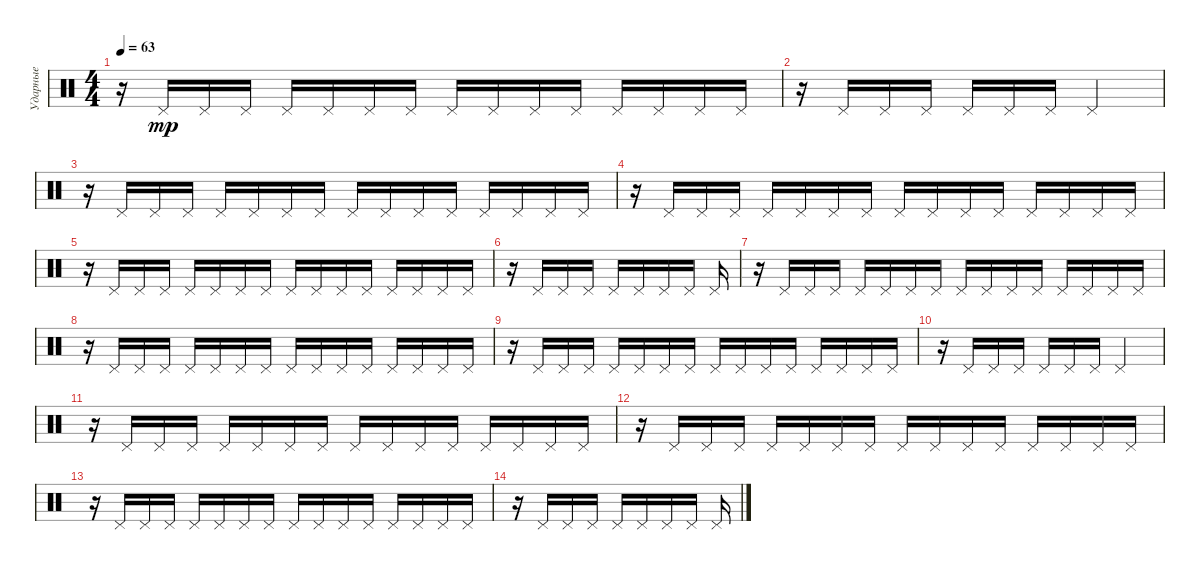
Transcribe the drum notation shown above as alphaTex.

\track ("Ударные" "Ударные") {instrument percussion}
\staff {score}
\articulation defaults
\ts (4 4)
\tempo 63
\clef neutral
\ks c
r.16{dy mp} "Pedal Hi-Hat (hit)".16 "Pedal Hi-Hat (hit)".16 "Pedal Hi-Hat (hit)".16 "Pedal Hi-Hat (hit)".16 "Pedal Hi-Hat (hit)".16 "Pedal Hi-Hat (hit)".16 "Pedal Hi-Hat (hit)".16 "Pedal Hi-Hat (hit)".16 "Pedal Hi-Hat (hit)".16 "Pedal Hi-Hat (hit)".16 "Pedal Hi-Hat (hit)".16 "Pedal Hi-Hat (hit)".16 "Pedal Hi-Hat (hit)".16 "Pedal Hi-Hat (hit)".16 "Pedal Hi-Hat (hit)".16 |
r.16 "Pedal Hi-Hat (hit)".16 "Pedal Hi-Hat (hit)".16 "Pedal Hi-Hat (hit)".16 "Pedal Hi-Hat (hit)".16 "Pedal Hi-Hat (hit)".16 "Pedal Hi-Hat (hit)".16 "Pedal Hi-Hat (hit)".2 |
r.16 "Pedal Hi-Hat (hit)".16 "Pedal Hi-Hat (hit)".16 "Pedal Hi-Hat (hit)".16 "Pedal Hi-Hat (hit)".16 "Pedal Hi-Hat (hit)".16 "Pedal Hi-Hat (hit)".16 "Pedal Hi-Hat (hit)".16 "Pedal Hi-Hat (hit)".16 "Pedal Hi-Hat (hit)".16 "Pedal Hi-Hat (hit)".16 "Pedal Hi-Hat (hit)".16 "Pedal Hi-Hat (hit)".16 "Pedal Hi-Hat (hit)".16 "Pedal Hi-Hat (hit)".16 "Pedal Hi-Hat (hit)".16 |
r.16 "Pedal Hi-Hat (hit)".16 "Pedal Hi-Hat (hit)".16 "Pedal Hi-Hat (hit)".16 "Pedal Hi-Hat (hit)".16 "Pedal Hi-Hat (hit)".16 "Pedal Hi-Hat (hit)".16 "Pedal Hi-Hat (hit)".16 "Pedal Hi-Hat (hit)".16 "Pedal Hi-Hat (hit)".16 "Pedal Hi-Hat (hit)".16 "Pedal Hi-Hat (hit)".16 "Pedal Hi-Hat (hit)".16 "Pedal Hi-Hat (hit)".16 "Pedal Hi-Hat (hit)".16 "Pedal Hi-Hat (hit)".16 |
r.16 "Pedal Hi-Hat (hit)".16 "Pedal Hi-Hat (hit)".16 "Pedal Hi-Hat (hit)".16 "Pedal Hi-Hat (hit)".16 "Pedal Hi-Hat (hit)".16 "Pedal Hi-Hat (hit)".16 "Pedal Hi-Hat (hit)".16 "Pedal Hi-Hat (hit)".16 "Pedal Hi-Hat (hit)".16 "Pedal Hi-Hat (hit)".16 "Pedal Hi-Hat (hit)".16 "Pedal Hi-Hat (hit)".16 "Pedal Hi-Hat (hit)".16 "Pedal Hi-Hat (hit)".16 "Pedal Hi-Hat (hit)".16 |
r.16 "Pedal Hi-Hat (hit)".16 "Pedal Hi-Hat (hit)".16 "Pedal Hi-Hat (hit)".16 "Pedal Hi-Hat (hit)".16 "Pedal Hi-Hat (hit)".16 "Pedal Hi-Hat (hit)".16 "Pedal Hi-Hat (hit)".16 "Pedal Hi-Hat (hit)".16 |
r.16 "Pedal Hi-Hat (hit)".16 "Pedal Hi-Hat (hit)".16 "Pedal Hi-Hat (hit)".16 "Pedal Hi-Hat (hit)".16 "Pedal Hi-Hat (hit)".16 "Pedal Hi-Hat (hit)".16 "Pedal Hi-Hat (hit)".16 "Pedal Hi-Hat (hit)".16 "Pedal Hi-Hat (hit)".16 "Pedal Hi-Hat (hit)".16 "Pedal Hi-Hat (hit)".16 "Pedal Hi-Hat (hit)".16 "Pedal Hi-Hat (hit)".16 "Pedal Hi-Hat (hit)".16 "Pedal Hi-Hat (hit)".16 |
r.16 "Pedal Hi-Hat (hit)".16 "Pedal Hi-Hat (hit)".16 "Pedal Hi-Hat (hit)".16 "Pedal Hi-Hat (hit)".16 "Pedal Hi-Hat (hit)".16 "Pedal Hi-Hat (hit)".16 "Pedal Hi-Hat (hit)".16 "Pedal Hi-Hat (hit)".16 "Pedal Hi-Hat (hit)".16 "Pedal Hi-Hat (hit)".16 "Pedal Hi-Hat (hit)".16 "Pedal Hi-Hat (hit)".16 "Pedal Hi-Hat (hit)".16 "Pedal Hi-Hat (hit)".16 "Pedal Hi-Hat (hit)".16 |
r.16 "Pedal Hi-Hat (hit)".16 "Pedal Hi-Hat (hit)".16 "Pedal Hi-Hat (hit)".16 "Pedal Hi-Hat (hit)".16 "Pedal Hi-Hat (hit)".16 "Pedal Hi-Hat (hit)".16 "Pedal Hi-Hat (hit)".16 "Pedal Hi-Hat (hit)".16 "Pedal Hi-Hat (hit)".16 "Pedal Hi-Hat (hit)".16 "Pedal Hi-Hat (hit)".16 "Pedal Hi-Hat (hit)".16 "Pedal Hi-Hat (hit)".16 "Pedal Hi-Hat (hit)".16 "Pedal Hi-Hat (hit)".16 |
r.16 "Pedal Hi-Hat (hit)".16 "Pedal Hi-Hat (hit)".16 "Pedal Hi-Hat (hit)".16 "Pedal Hi-Hat (hit)".16 "Pedal Hi-Hat (hit)".16 "Pedal Hi-Hat (hit)".16 "Pedal Hi-Hat (hit)".2 |
r.16 "Pedal Hi-Hat (hit)".16 "Pedal Hi-Hat (hit)".16 "Pedal Hi-Hat (hit)".16 "Pedal Hi-Hat (hit)".16 "Pedal Hi-Hat (hit)".16 "Pedal Hi-Hat (hit)".16 "Pedal Hi-Hat (hit)".16 "Pedal Hi-Hat (hit)".16 "Pedal Hi-Hat (hit)".16 "Pedal Hi-Hat (hit)".16 "Pedal Hi-Hat (hit)".16 "Pedal Hi-Hat (hit)".16 "Pedal Hi-Hat (hit)".16 "Pedal Hi-Hat (hit)".16 "Pedal Hi-Hat (hit)".16 |
r.16 "Pedal Hi-Hat (hit)".16 "Pedal Hi-Hat (hit)".16 "Pedal Hi-Hat (hit)".16 "Pedal Hi-Hat (hit)".16 "Pedal Hi-Hat (hit)".16 "Pedal Hi-Hat (hit)".16 "Pedal Hi-Hat (hit)".16 "Pedal Hi-Hat (hit)".16 "Pedal Hi-Hat (hit)".16 "Pedal Hi-Hat (hit)".16 "Pedal Hi-Hat (hit)".16 "Pedal Hi-Hat (hit)".16 "Pedal Hi-Hat (hit)".16 "Pedal Hi-Hat (hit)".16 "Pedal Hi-Hat (hit)".16 |
r.16 "Pedal Hi-Hat (hit)".16 "Pedal Hi-Hat (hit)".16 "Pedal Hi-Hat (hit)".16 "Pedal Hi-Hat (hit)".16 "Pedal Hi-Hat (hit)".16 "Pedal Hi-Hat (hit)".16 "Pedal Hi-Hat (hit)".16 "Pedal Hi-Hat (hit)".16 "Pedal Hi-Hat (hit)".16 "Pedal Hi-Hat (hit)".16 "Pedal Hi-Hat (hit)".16 "Pedal Hi-Hat (hit)".16 "Pedal Hi-Hat (hit)".16 "Pedal Hi-Hat (hit)".16 "Pedal Hi-Hat (hit)".16 |
r.16 "Pedal Hi-Hat (hit)".16 "Pedal Hi-Hat (hit)".16 "Pedal Hi-Hat (hit)".16 "Pedal Hi-Hat (hit)".16 "Pedal Hi-Hat (hit)".16 "Pedal Hi-Hat (hit)".16 "Pedal Hi-Hat (hit)".16 "Pedal Hi-Hat (hit)".16
